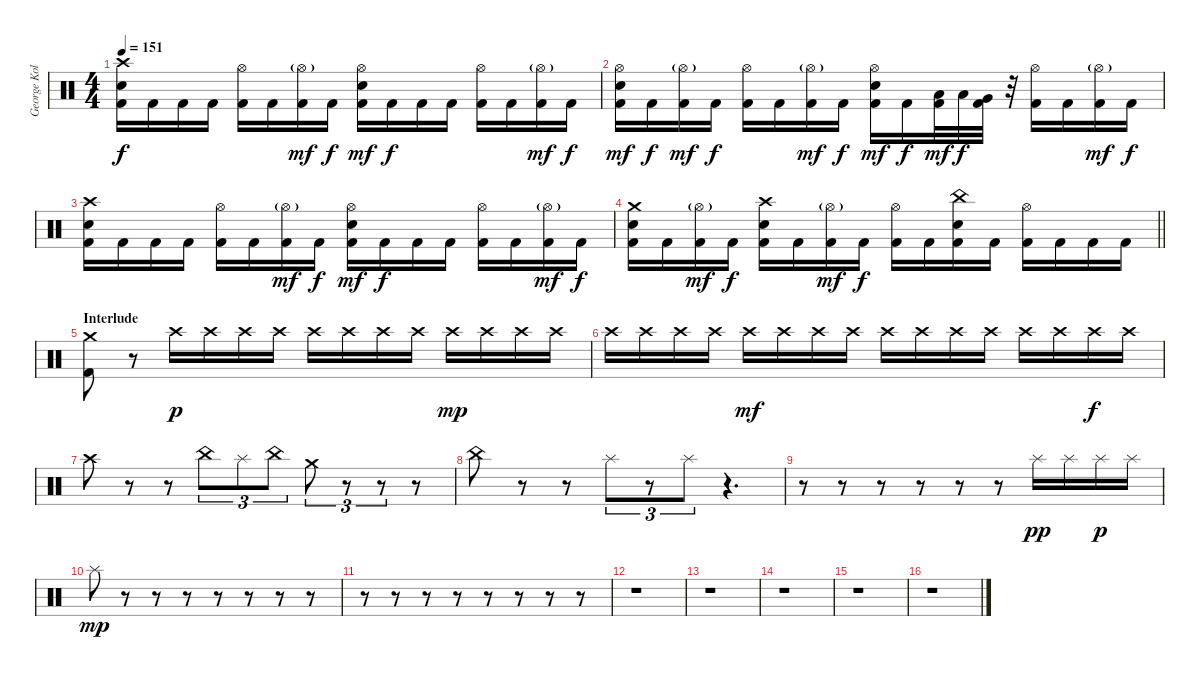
\track ("George Kollias" "George Kol") {instrument percussion}
\staff {score}
\articulation defaults
\ts (4 4)
\tempo 151
\clef neutral
\ks c
("Crash high (hit)" "Electric Snare (hit)" "Kick (hit) 2").16{dy f} "Kick (hit) 2".16 "Kick (hit) 2".16 "Kick (hit) 2".16 ("Hi-Hat (open)" "Kick (hit) 2").16 "Kick (hit) 2".16 ("Hi-Hat (open)"{g} "Kick (hit) 2").16{dy mf} "Kick (hit) 2".16{dy f} ("Hi-Hat (open)" "Electric Snare (hit)" "Kick (hit) 2").16{dy mf} "Kick (hit) 2".16{dy f} "Kick (hit) 2".16 "Kick (hit) 2".16 ("Hi-Hat (open)" "Kick (hit) 2").16 "Kick (hit) 2".16 ("Hi-Hat (open)"{g} "Kick (hit) 2").16{dy mf} "Kick (hit) 2".16{dy f} |
("Hi-Hat (open)" "Electric Snare (hit)" "Kick (hit) 2").16{dy mf} "Kick (hit) 2".16{dy f} ("Hi-Hat (open)"{g} "Kick (hit) 2").16{dy mf} "Kick (hit) 2".16{dy f} ("Hi-Hat (open)" "Kick (hit) 2").16 "Kick (hit) 2".16 ("Hi-Hat (open)"{g} "Kick (hit) 2").16{dy mf} "Kick (hit) 2".16{dy f} ("Hi-Hat (open)" "Electric Snare (hit)" "Kick (hit) 2").16{dy mf} "Kick (hit) 2".16{dy f} ("Low Tom (hit)" "Kick (hit) 2").32{dy mf} "Low Tom (hit)".32{dy f} ("Very Low Tom (hit)" "Kick (hit) 2").32 r.32 ("Hi-Hat (open)" "Kick (hit) 2").16 "Kick (hit) 2".16 ("Hi-Hat (open)"{g} "Kick (hit) 2").16{dy mf} "Kick (hit) 2".16{dy f} |
("Crash high (hit)" "Electric Snare (hit)" "Kick (hit) 2").16 "Kick (hit) 2".16 "Kick (hit) 2".16 "Kick (hit) 2".16 ("Hi-Hat (open)" "Kick (hit) 2").16 "Kick (hit) 2".16 ("Hi-Hat (open)"{g} "Kick (hit) 2").16{dy mf} "Kick (hit) 2".16{dy f} ("Hi-Hat (open)" "Electric Snare (hit)" "Kick (hit) 2").16{dy mf} "Kick (hit) 2".16{dy f} "Kick (hit) 2".16 "Kick (hit) 2".16 ("Hi-Hat (open)" "Kick (hit) 2").16 "Kick (hit) 2".16 ("Hi-Hat (open)"{g} "Kick (hit) 2").16{dy mf} "Kick (hit) 2".16{dy f} |
\barLineRight lightlight
("Crash medium (hit)" "Electric Snare (hit)" "Kick (hit) 2").16 "Kick (hit) 2".16 ("Hi-Hat (open)"{g} "Kick (hit) 2").16{dy mf} "Kick (hit) 2".16{dy f} ("Crash high (hit)" "Electric Snare (hit)" "Kick (hit) 2").16 "Kick (hit) 2".16 ("Hi-Hat (open)"{g} "Kick (hit) 2").16{dy mf} "Kick (hit) 2".16{dy f} ("Hi-Hat (open)" "Kick (hit) 2").16 "Kick (hit) 2".16 ("China (hit)" "Electric Snare (hit)" "Kick (hit) 2").16 "Kick (hit) 2".16 ("Hi-Hat (open)" "Kick (hit) 2").16 "Kick (hit) 2".16 "Kick (hit) 2".16 "Kick (hit) 2".16 |
\section ("" "Interlude")
("Crash medium (hit)" "Kick (hit) 2").8 r.8 "Crash high (hit)".16{dy p} "Crash high (hit)".16 "Crash high (hit)".16 "Crash high (hit)".16 "Crash high (hit)".16 "Crash high (hit)".16 "Crash high (hit)".16 "Crash high (hit)".16 "Crash high (hit)".16{dy mp} "Crash high (hit)".16 "Crash high (hit)".16 "Crash high (hit)".16 |
"Crash high (hit)".16 "Crash high (hit)".16 "Crash high (hit)".16 "Crash high (hit)".16 "Crash high (hit)".16{dy mf} "Crash high (hit)".16 "Crash high (hit)".16 "Crash high (hit)".16 "Crash high (hit)".16 "Crash high (hit)".16 "Crash high (hit)".16 "Crash high (hit)".16 "Crash high (hit)".16 "Crash high (hit)".16 "Crash high (hit)".16{dy f} "Crash high (hit)".16 |
"Crash high (hit)".8 r.8 r.8 "China (hit)".8{tu (3 2)} "Splash (hit)".8{tu (3 2)} "China (hit)".8{tu (3 2)} "Crash medium (hit)".8{tu (3 2)} r.8{tu (3 2)} r.8{tu (3 2)} r.8 |
"China (hit)".8 r.8 r.8 "Splash (hit)".8{tu (3 2)} r.8{tu (3 2)} "Splash (hit)".8{tu (3 2)} r.4{d} |
r.8 r.8 r.8 r.8 r.8 r.8 "Splash (hit)".16{dy pp} "Splash (hit)".16 "Splash (hit)".16{dy p} "Splash (hit)".16 |
"Splash (hit)".8{dy mp} r.8 r.8 r.8 r.8 r.8 r.8 r.8 |
r.8 r.8 r.8 r.8 r.8 r.8 r.8 r.8 |
r.1 |
r.1 |
r.1 |
r.1 |
r.1
